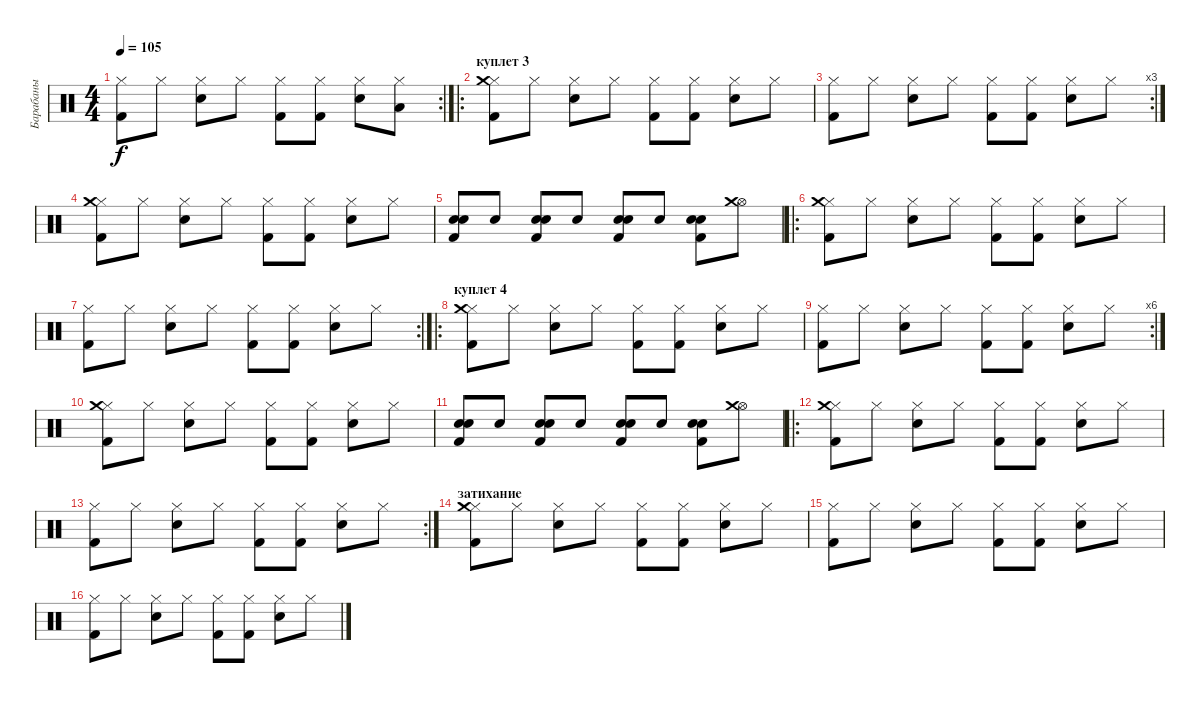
\track ("Барабаны" "Барабаны") {instrument percussion}
\staff {score}
\articulation defaults
\rc 2
\ts (4 4)
\tempo 105
\clef neutral
\ks c
("Hi-Hat (closed)" "Kick (hit) 2").8{dy f} "Hi-Hat (closed)".8 ("Hi-Hat (closed)" "Electric Snare (hit)").8 "Hi-Hat (closed)".8 ("Hi-Hat (closed)" "Kick (hit) 2").8 ("Hi-Hat (closed)" "Kick (hit) 2").8 ("Hi-Hat (closed)" "Electric Snare (hit)").8 ("Hi-Hat (closed)" "Low Tom (hit)").8 |
\ro
\section ("" "куплет 3")
("Hi-Hat (closed)" "Kick (hit) 2" "Crash medium (hit)").8 "Hi-Hat (closed)".8 ("Hi-Hat (closed)" "Electric Snare (hit)").8 "Hi-Hat (closed)".8 ("Hi-Hat (closed)" "Kick (hit) 2").8 ("Hi-Hat (closed)" "Kick (hit) 2").8 ("Hi-Hat (closed)" "Electric Snare (hit)").8 "Hi-Hat (closed)".8 |
\rc 3
("Hi-Hat (closed)" "Kick (hit) 2").8 "Hi-Hat (closed)".8 ("Hi-Hat (closed)" "Electric Snare (hit)").8 "Hi-Hat (closed)".8 ("Hi-Hat (closed)" "Kick (hit) 2").8 ("Hi-Hat (closed)" "Kick (hit) 2").8 ("Hi-Hat (closed)" "Electric Snare (hit)").8 "Hi-Hat (closed)".8 |
("Hi-Hat (closed)" "Kick (hit) 2" "Crash medium (hit)").8 "Hi-Hat (closed)".8 ("Hi-Hat (closed)" "Electric Snare (hit)").8 "Hi-Hat (closed)".8 ("Hi-Hat (closed)" "Kick (hit) 2").8 ("Hi-Hat (closed)" "Kick (hit) 2").8 ("Hi-Hat (closed)" "Electric Snare (hit)").8 "Hi-Hat (closed)".8 |
("Electric Snare (hit)" "Kick (hit) 2" "Electric Snare (hit)").8 "Electric Snare (hit)".8 ("Electric Snare (hit)" "Kick (hit) 2" "Electric Snare (hit)").8 "Electric Snare (hit)".8 ("Electric Snare (hit)" "Kick (hit) 2" "Electric Snare (hit)").8 "Electric Snare (hit)".8 ("Electric Snare (hit)" "Kick (hit) 2" "Electric Snare (hit)").8 ("Hi-Hat (open)" "Crash medium (hit)").8 |
\ro
\section ("" " ")
("Hi-Hat (closed)" "Kick (hit) 2" "Crash medium (hit)").8 "Hi-Hat (closed)".8 ("Hi-Hat (closed)" "Electric Snare (hit)").8 "Hi-Hat (closed)".8 ("Hi-Hat (closed)" "Kick (hit) 2").8 ("Hi-Hat (closed)" "Kick (hit) 2").8 ("Hi-Hat (closed)" "Electric Snare (hit)").8 "Hi-Hat (closed)".8 |
\rc 2
("Hi-Hat (closed)" "Kick (hit) 2").8 "Hi-Hat (closed)".8 ("Hi-Hat (closed)" "Electric Snare (hit)").8 "Hi-Hat (closed)".8 ("Hi-Hat (closed)" "Kick (hit) 2").8 ("Hi-Hat (closed)" "Kick (hit) 2").8 ("Hi-Hat (closed)" "Electric Snare (hit)").8 "Hi-Hat (closed)".8 |
\ro
\section ("" "куплет 4")
("Hi-Hat (closed)" "Kick (hit) 2" "Crash medium (hit)").8 "Hi-Hat (closed)".8 ("Hi-Hat (closed)" "Electric Snare (hit)").8 "Hi-Hat (closed)".8 ("Hi-Hat (closed)" "Kick (hit) 2").8 ("Hi-Hat (closed)" "Kick (hit) 2").8 ("Hi-Hat (closed)" "Electric Snare (hit)").8 "Hi-Hat (closed)".8 |
\rc 6
("Hi-Hat (closed)" "Kick (hit) 2").8 "Hi-Hat (closed)".8 ("Hi-Hat (closed)" "Electric Snare (hit)").8 "Hi-Hat (closed)".8 ("Hi-Hat (closed)" "Kick (hit) 2").8 ("Hi-Hat (closed)" "Kick (hit) 2").8 ("Hi-Hat (closed)" "Electric Snare (hit)").8 "Hi-Hat (closed)".8 |
("Hi-Hat (closed)" "Kick (hit) 2" "Crash medium (hit)").8 "Hi-Hat (closed)".8 ("Hi-Hat (closed)" "Electric Snare (hit)").8 "Hi-Hat (closed)".8 ("Hi-Hat (closed)" "Kick (hit) 2").8 ("Hi-Hat (closed)" "Kick (hit) 2").8 ("Hi-Hat (closed)" "Electric Snare (hit)").8 "Hi-Hat (closed)".8 |
("Electric Snare (hit)" "Kick (hit) 2" "Electric Snare (hit)").8 "Electric Snare (hit)".8 ("Electric Snare (hit)" "Kick (hit) 2" "Electric Snare (hit)").8 "Electric Snare (hit)".8 ("Electric Snare (hit)" "Kick (hit) 2" "Electric Snare (hit)").8 "Electric Snare (hit)".8 ("Electric Snare (hit)" "Kick (hit) 2" "Electric Snare (hit)").8 ("Hi-Hat (open)" "Crash medium (hit)").8 |
\ro
\section ("" " ")
("Hi-Hat (closed)" "Kick (hit) 2" "Crash medium (hit)").8 "Hi-Hat (closed)".8 ("Hi-Hat (closed)" "Electric Snare (hit)").8 "Hi-Hat (closed)".8 ("Hi-Hat (closed)" "Kick (hit) 2").8 ("Hi-Hat (closed)" "Kick (hit) 2").8 ("Hi-Hat (closed)" "Electric Snare (hit)").8 "Hi-Hat (closed)".8 |
\rc 2
("Hi-Hat (closed)" "Kick (hit) 2").8 "Hi-Hat (closed)".8 ("Hi-Hat (closed)" "Electric Snare (hit)").8 "Hi-Hat (closed)".8 ("Hi-Hat (closed)" "Kick (hit) 2").8 ("Hi-Hat (closed)" "Kick (hit) 2").8 ("Hi-Hat (closed)" "Electric Snare (hit)").8 "Hi-Hat (closed)".8 |
\section ("" "затихание")
("Hi-Hat (closed)" "Kick (hit) 2" "Crash medium (hit)").8 "Hi-Hat (closed)".8 ("Hi-Hat (closed)" "Electric Snare (hit)").8 "Hi-Hat (closed)".8 ("Hi-Hat (closed)" "Kick (hit) 2").8 ("Hi-Hat (closed)" "Kick (hit) 2").8 ("Hi-Hat (closed)" "Electric Snare (hit)").8 "Hi-Hat (closed)".8 |
("Hi-Hat (closed)" "Kick (hit) 2").8 "Hi-Hat (closed)".8 ("Hi-Hat (closed)" "Electric Snare (hit)").8 "Hi-Hat (closed)".8 ("Hi-Hat (closed)" "Kick (hit) 2").8 ("Hi-Hat (closed)" "Kick (hit) 2").8 ("Hi-Hat (closed)" "Electric Snare (hit)").8 "Hi-Hat (closed)".8 |
("Hi-Hat (closed)" "Kick (hit) 2").8 "Hi-Hat (closed)".8 ("Hi-Hat (closed)" "Electric Snare (hit)").8 "Hi-Hat (closed)".8 ("Hi-Hat (closed)" "Kick (hit) 2").8 ("Hi-Hat (closed)" "Kick (hit) 2").8 ("Hi-Hat (closed)" "Electric Snare (hit)").8 "Hi-Hat (closed)".8
